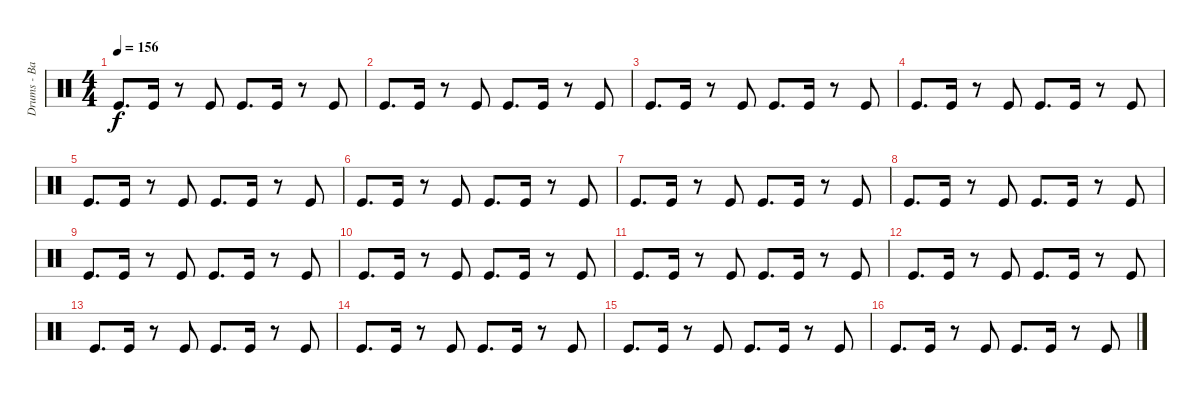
\track ("Drums - Bass Drums" "Drums - Ba") {instrument percussion}
\staff {score}
\articulation defaults
\ts (4 4)
\tempo 156
\clef neutral
\ks c "Kick (hit)".8{d dy f} "Kick (hit)".16
r.8 "Kick (hit)".8 "Kick (hit)".8{d} "Kick (hit)".16 r.8 "Kick (hit)".8 |
"Kick (hit)".8{d} "Kick (hit)".16 r.8 "Kick (hit)".8 "Kick (hit)".8{d} "Kick (hit)".16 r.8 "Kick (hit)".8 |
"Kick (hit)".8{d} "Kick (hit)".16 r.8 "Kick (hit)".8 "Kick (hit)".8{d} "Kick (hit)".16 r.8 "Kick (hit)".8 |
"Kick (hit)".8{d} "Kick (hit)".16 r.8 "Kick (hit)".8 "Kick (hit)".8{d} "Kick (hit)".16 r.8 "Kick (hit)".8 |
"Kick (hit)".8{d} "Kick (hit)".16 r.8 "Kick (hit)".8 "Kick (hit)".8{d} "Kick (hit)".16 r.8 "Kick (hit)".8 |
"Kick (hit)".8{d} "Kick (hit)".16 r.8 "Kick (hit)".8 "Kick (hit)".8{d} "Kick (hit)".16 r.8 "Kick (hit)".8 |
"Kick (hit)".8{d} "Kick (hit)".16 r.8 "Kick (hit)".8 "Kick (hit)".8{d} "Kick (hit)".16 r.8 "Kick (hit)".8 |
"Kick (hit)".8{d} "Kick (hit)".16 r.8 "Kick (hit)".8 "Kick (hit)".8{d} "Kick (hit)".16 r.8 "Kick (hit)".8 |
"Kick (hit)".8{d} "Kick (hit)".16 r.8 "Kick (hit)".8 "Kick (hit)".8{d} "Kick (hit)".16 r.8 "Kick (hit)".8 |
"Kick (hit)".8{d} "Kick (hit)".16 r.8 "Kick (hit)".8 "Kick (hit)".8{d} "Kick (hit)".16 r.8 "Kick (hit)".8 |
"Kick (hit)".8{d} "Kick (hit)".16 r.8 "Kick (hit)".8 "Kick (hit)".8{d} "Kick (hit)".16 r.8 "Kick (hit)".8 |
"Kick (hit)".8{d} "Kick (hit)".16 r.8 "Kick (hit)".8 "Kick (hit)".8{d} "Kick (hit)".16 r.8 "Kick (hit)".8 |
"Kick (hit)".8{d} "Kick (hit)".16 r.8 "Kick (hit)".8 "Kick (hit)".8{d} "Kick (hit)".16 r.8 "Kick (hit)".8 |
"Kick (hit)".8{d} "Kick (hit)".16 r.8 "Kick (hit)".8 "Kick (hit)".8{d} "Kick (hit)".16 r.8 "Kick (hit)".8 |
"Kick (hit)".8{d} "Kick (hit)".16 r.8 "Kick (hit)".8 "Kick (hit)".8{d} "Kick (hit)".16 r.8 "Kick (hit)".8 |
"Kick (hit)".8{d} "Kick (hit)".16 r.8 "Kick (hit)".8 "Kick (hit)".8{d} "Kick (hit)".16 r.8 "Kick (hit)".8
